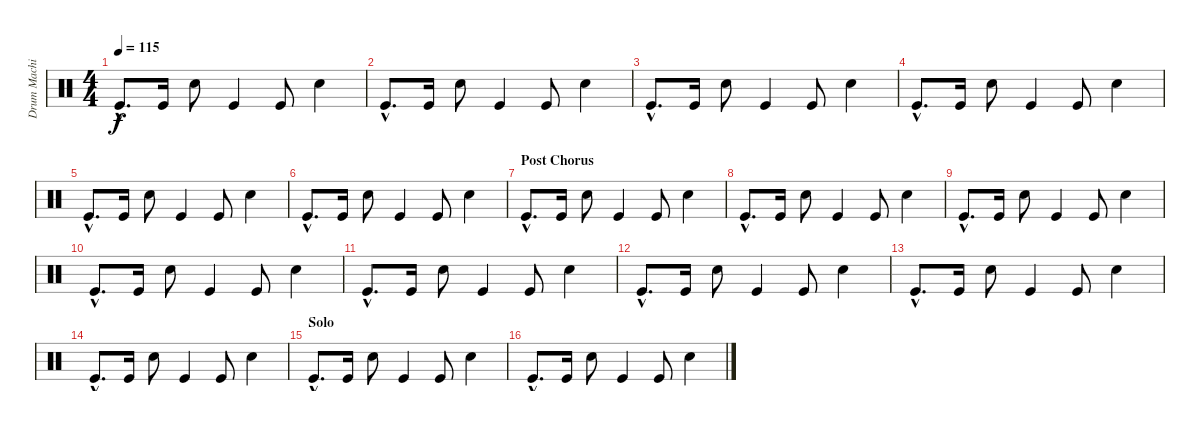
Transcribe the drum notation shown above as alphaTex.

\track ("Drum Machine" "Drum Machi") {instrument percussion}
\staff {score}
\articulation defaults
\ts (4 4)
\tempo 115
\clef neutral
\ks c "Kick (hit)"{hac}.8{d dy f} "Kick (hit)".16 "Snare (hit) 2".8 "Kick (hit)".4 "Kick (hit)".8 "Snare (hit) 2".4
|
"Kick (hit)"{hac}.8{d} "Kick (hit)".16 "Snare (hit) 2".8 "Kick (hit)".4 "Kick (hit)".8 "Snare (hit) 2".4 |
"Kick (hit)"{hac}.8{d} "Kick (hit)".16 "Snare (hit) 2".8 "Kick (hit)".4 "Kick (hit)".8 "Snare (hit) 2".4 |
"Kick (hit)"{hac}.8{d} "Kick (hit)".16 "Snare (hit) 2".8 "Kick (hit)".4 "Kick (hit)".8 "Snare (hit) 2".4 |
"Kick (hit)"{hac}.8{d} "Kick (hit)".16 "Snare (hit) 2".8 "Kick (hit)".4 "Kick (hit)".8 "Snare (hit) 2".4 |
"Kick (hit)"{hac}.8{d} "Kick (hit)".16 "Snare (hit) 2".8 "Kick (hit)".4 "Kick (hit)".8 "Snare (hit) 2".4 |
\section ("" "Post Chorus")
"Kick (hit)"{hac}.8{d} "Kick (hit)".16 "Snare (hit) 2".8 "Kick (hit)".4 "Kick (hit)".8 "Snare (hit) 2".4 |
"Kick (hit)"{hac}.8{d} "Kick (hit)".16 "Snare (hit) 2".8 "Kick (hit)".4 "Kick (hit)".8 "Snare (hit) 2".4 |
"Kick (hit)"{hac}.8{d} "Kick (hit)".16 "Snare (hit) 2".8 "Kick (hit)".4 "Kick (hit)".8 "Snare (hit) 2".4 |
"Kick (hit)"{hac}.8{d} "Kick (hit)".16 "Snare (hit) 2".8 "Kick (hit)".4 "Kick (hit)".8 "Snare (hit) 2".4 |
"Kick (hit)"{hac}.8{d} "Kick (hit)".16 "Snare (hit) 2".8 "Kick (hit)".4 "Kick (hit)".8 "Snare (hit) 2".4 |
"Kick (hit)"{hac}.8{d} "Kick (hit)".16 "Snare (hit) 2".8 "Kick (hit)".4 "Kick (hit)".8 "Snare (hit) 2".4 |
"Kick (hit)"{hac}.8{d} "Kick (hit)".16 "Snare (hit) 2".8 "Kick (hit)".4 "Kick (hit)".8 "Snare (hit) 2".4 |
"Kick (hit)"{hac}.8{d} "Kick (hit)".16 "Snare (hit) 2".8 "Kick (hit)".4 "Kick (hit)".8 "Snare (hit) 2".4 |
\section ("" "Solo")
"Kick (hit)"{hac}.8{d} "Kick (hit)".16 "Snare (hit) 2".8 "Kick (hit)".4 "Kick (hit)".8 "Snare (hit) 2".4 |
"Kick (hit)"{hac}.8{d} "Kick (hit)".16 "Snare (hit) 2".8 "Kick (hit)".4 "Kick (hit)".8 "Snare (hit) 2".4
